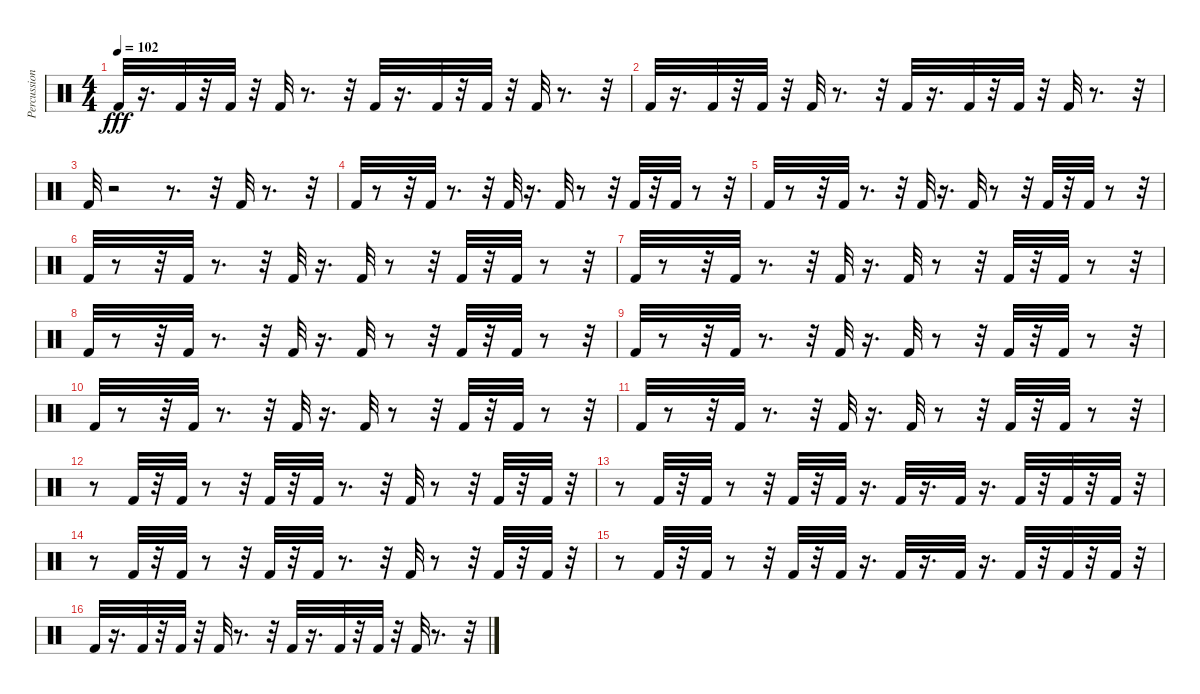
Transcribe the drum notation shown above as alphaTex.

\track ("Percussion" "Percussion") {instrument percussion}
\staff {score}
\articulation defaults
\ts (4 4)
\tempo 102
\clef neutral
\ks c "Kick (hit) 2".32{dy fff}
r.16{d} "Kick (hit) 2".32 r.32 "Kick (hit) 2".32 r.32 "Kick (hit) 2".32 r.8{d} r.32 "Kick (hit) 2".32 r.16{d} "Kick (hit) 2".32 r.32 "Kick (hit) 2".32 r.32 "Kick (hit) 2".32 r.8{d} r.32 |
"Kick (hit) 2".32 r.16{d} "Kick (hit) 2".32 r.32 "Kick (hit) 2".32 r.32 "Kick (hit) 2".32 r.8{d} r.32 "Kick (hit) 2".32 r.16{d} "Kick (hit) 2".32 r.32 "Kick (hit) 2".32 r.32 "Kick (hit) 2".32 r.8{d} r.32 |
"Kick (hit) 2".32 r.2 r.8{d} r.32 "Kick (hit) 2".32 r.8{d} r.32 |
"Kick (hit) 2".32 r.8 r.32 "Kick (hit) 2".32 r.8{d} r.32 "Kick (hit) 2".32 r.16{d} "Kick (hit) 2".32 r.8 r.32 "Kick (hit) 2".32 r.32 "Kick (hit) 2".32 r.8 r.32 |
"Kick (hit) 2".32 r.8 r.32 "Kick (hit) 2".32 r.8{d} r.32 "Kick (hit) 2".32 r.16{d} "Kick (hit) 2".32 r.8 r.32 "Kick (hit) 2".32 r.32 "Kick (hit) 2".32 r.8 r.32 |
"Kick (hit) 2".32 r.8 r.32 "Kick (hit) 2".32 r.8{d} r.32 "Kick (hit) 2".32 r.16{d} "Kick (hit) 2".32 r.8 r.32 "Kick (hit) 2".32 r.32 "Kick (hit) 2".32 r.8 r.32 |
"Kick (hit) 2".32 r.8 r.32 "Kick (hit) 2".32 r.8{d} r.32 "Kick (hit) 2".32 r.16{d} "Kick (hit) 2".32 r.8 r.32 "Kick (hit) 2".32 r.32 "Kick (hit) 2".32 r.8 r.32 |
"Kick (hit) 2".32 r.8 r.32 "Kick (hit) 2".32 r.8{d} r.32 "Kick (hit) 2".32 r.16{d} "Kick (hit) 2".32 r.8 r.32 "Kick (hit) 2".32 r.32 "Kick (hit) 2".32 r.8 r.32 |
"Kick (hit) 2".32 r.8 r.32 "Kick (hit) 2".32 r.8{d} r.32 "Kick (hit) 2".32 r.16{d} "Kick (hit) 2".32 r.8 r.32 "Kick (hit) 2".32 r.32 "Kick (hit) 2".32 r.8 r.32 |
"Kick (hit) 2".32 r.8 r.32 "Kick (hit) 2".32 r.8{d} r.32 "Kick (hit) 2".32 r.16{d} "Kick (hit) 2".32 r.8 r.32 "Kick (hit) 2".32 r.32 "Kick (hit) 2".32 r.8 r.32 |
"Kick (hit) 2".32 r.8 r.32 "Kick (hit) 2".32 r.8{d} r.32 "Kick (hit) 2".32 r.16{d} "Kick (hit) 2".32 r.8 r.32 "Kick (hit) 2".32 r.32 "Kick (hit) 2".32 r.8 r.32 |
r.8 "Kick (hit) 2".32 r.32 "Kick (hit) 2".32 r.8 r.32 "Kick (hit) 2".32 r.32 "Kick (hit) 2".32 r.8{d} r.32 "Kick (hit) 2".32 r.8 r.32 "Kick (hit) 2".32 r.32 "Kick (hit) 2".32 r.32 |
r.8 "Kick (hit) 2".32 r.32 "Kick (hit) 2".32 r.8 r.32 "Kick (hit) 2".32 r.32 "Kick (hit) 2".32 r.16{d} "Kick (hit) 2".32 r.16{d} "Kick (hit) 2".32 r.16{d} "Kick (hit) 2".32 r.32 "Kick (hit) 2".32 r.32 "Kick (hit) 2".32 r.32 |
r.8 "Kick (hit) 2".32 r.32 "Kick (hit) 2".32 r.8 r.32 "Kick (hit) 2".32 r.32 "Kick (hit) 2".32 r.8{d} r.32 "Kick (hit) 2".32 r.8 r.32 "Kick (hit) 2".32 r.32 "Kick (hit) 2".32 r.32 |
r.8 "Kick (hit) 2".32 r.32 "Kick (hit) 2".32 r.8 r.32 "Kick (hit) 2".32 r.32 "Kick (hit) 2".32 r.16{d} "Kick (hit) 2".32 r.16{d} "Kick (hit) 2".32 r.16{d} "Kick (hit) 2".32 r.32 "Kick (hit) 2".32 r.32 "Kick (hit) 2".32 r.32 |
"Kick (hit) 2".32 r.16{d} "Kick (hit) 2".32 r.32 "Kick (hit) 2".32 r.32 "Kick (hit) 2".32 r.8{d} r.32 "Kick (hit) 2".32 r.16{d} "Kick (hit) 2".32 r.32 "Kick (hit) 2".32 r.32 "Kick (hit) 2".32 r.8{d} r.32
